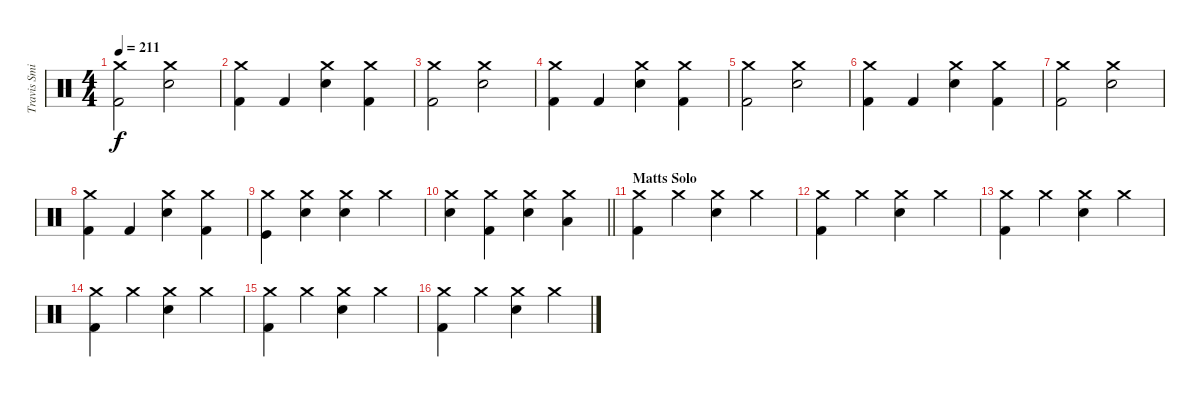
\track ("Travis Smith" "Travis Smi") {instrument percussion}
\staff {score}
\articulation defaults
\ts (4 4)
\tempo 211
\clef neutral
\ks c
("Crash medium (hit)" "Kick (hit) 2").2{dy f} ("Crash medium (hit)" "Electric Snare (hit)").2 |
("Crash medium (hit)" "Kick (hit) 2").4 "Kick (hit) 2".4 ("Crash medium (hit)" "Electric Snare (hit)").4 ("Crash medium (hit)" "Kick (hit) 2").4 |
("Crash medium (hit)" "Kick (hit) 2").2 ("Crash medium (hit)" "Electric Snare (hit)").2 |
("Crash medium (hit)" "Kick (hit) 2").4 "Kick (hit) 2".4 ("Crash medium (hit)" "Electric Snare (hit)").4 ("Crash medium (hit)" "Kick (hit) 2").4 |
("Crash medium (hit)" "Kick (hit) 2").2 ("Crash medium (hit)" "Electric Snare (hit)").2 |
("Crash medium (hit)" "Kick (hit) 2").4 "Kick (hit) 2".4 ("Crash medium (hit)" "Electric Snare (hit)").4 ("Crash medium (hit)" "Kick (hit) 2").4 |
("Crash medium (hit)" "Kick (hit) 2").2 ("Crash medium (hit)" "Electric Snare (hit)").2 |
("Crash medium (hit)" "Kick (hit) 2").4 "Kick (hit) 2".4 ("Crash medium (hit)" "Electric Snare (hit)").4 ("Crash medium (hit)" "Kick (hit) 2").4 |
("Crash medium (hit)" "Kick (hit)").4 ("Crash medium (hit)" "Electric Snare (hit)").4 ("Crash medium (hit)" "Electric Snare (hit)").4 "Crash medium (hit)".4 |
\barLineRight lightlight
("Crash medium (hit)" "Electric Snare (hit)").4 ("Crash medium (hit)" "Kick (hit) 2").4 ("Crash medium (hit)" "Electric Snare (hit)").4 ("Crash medium (hit)" "Low Tom (hit)").4 |
\section ("" "Matts Solo")
("Crash medium (hit)" "Kick (hit) 2").4 "Crash medium (hit)".4 ("Crash medium (hit)" "Electric Snare (hit)").4 "Crash medium (hit)".4 |
("Crash medium (hit)" "Kick (hit) 2").4 "Crash medium (hit)".4 ("Crash medium (hit)" "Electric Snare (hit)").4 "Crash medium (hit)".4 |
("Crash medium (hit)" "Kick (hit) 2").4 "Crash medium (hit)".4 ("Crash medium (hit)" "Electric Snare (hit)").4 "Crash medium (hit)".4 |
("Crash medium (hit)" "Kick (hit) 2").4 "Crash medium (hit)".4 ("Crash medium (hit)" "Electric Snare (hit)").4 "Crash medium (hit)".4 |
("Crash medium (hit)" "Kick (hit) 2").4 "Crash medium (hit)".4 ("Crash medium (hit)" "Electric Snare (hit)").4 "Crash medium (hit)".4 |
("Crash medium (hit)" "Kick (hit) 2").4 "Crash medium (hit)".4 ("Crash medium (hit)" "Electric Snare (hit)").4 "Crash medium (hit)".4
